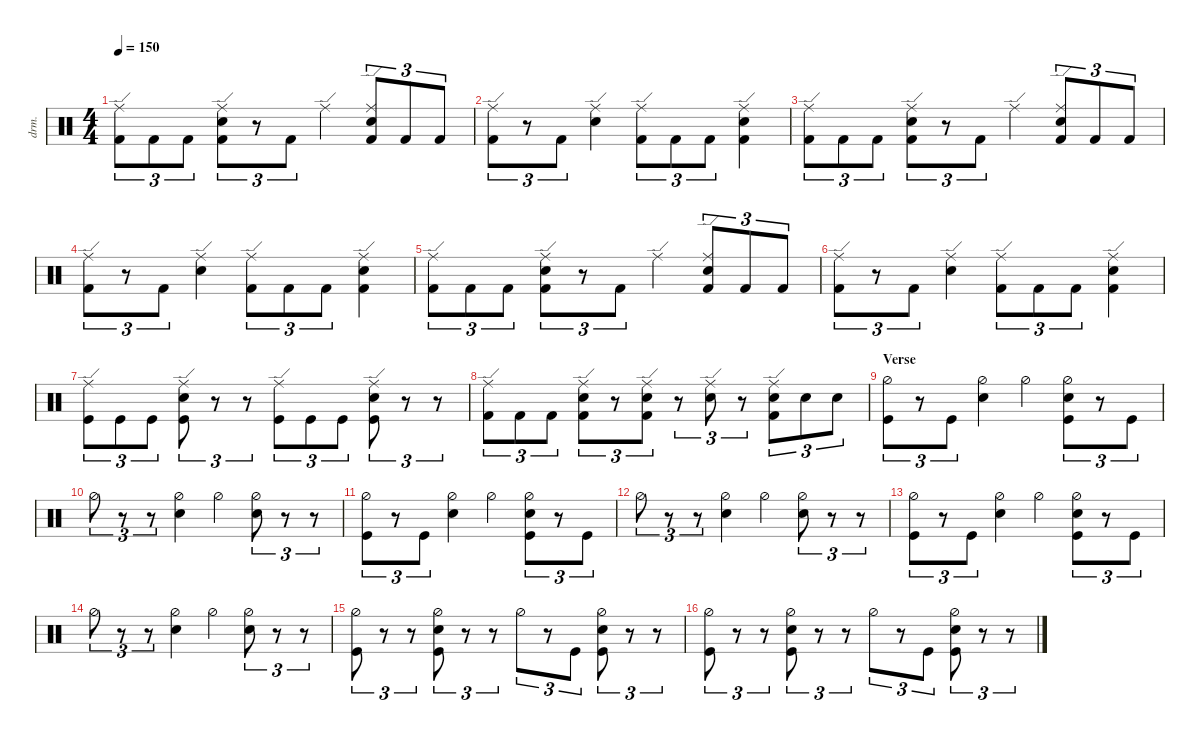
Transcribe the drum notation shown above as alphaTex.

\defaultSystemsLayout 4
\hideDynamics
\bracketExtendMode nobrackets
\otherSystemsTrackNameOrientation horizontal
\track ("Drumkit" "drm.") {solo instrument percussion}
\staff {score}
\articulation defaults
\ts (4 4)
\scale
1.06666
\tempo 150
\accidentals auto
\clef neutral
\ottava regular
\simile none
\ks aminor
("Kick (hit) 2" "Ride (edge)").8{tu (3 2) dy mf beam Down} "Kick (hit) 2".8{tu (3 2) beam Down} "Kick (hit) 2".8{tu (3 2) beam Down} ("Kick (hit) 2" "Ride (edge)" "Snare (hit) 2").8{tu (3 2) beam Down} r.8{tu (3 2) beam Down} "Kick (hit) 2".8{tu (3 2) beam Down} "Ride (edge)".4{beam Down} ("Kick (hit) 2" "Ride (edge)" "Snare (hit) 2").8{tu (3 2) beam Up} "Kick (hit) 2".8{tu (3 2) beam Up} "Kick (hit) 2".8{tu (3 2) beam Up} |
\scale
0.977779 ("Kick (hit) 2" "Ride (edge)").8{tu (3 2) beam Down} r.8{tu (3 2) beam Down} "Kick (hit) 2".8{tu (3 2) beam Down} ("Ride (edge)" "Snare (hit) 2").4{beam Down} ("Kick (hit) 2" "Ride (edge)").8{tu (3 2) beam Down} "Kick (hit) 2".8{tu (3 2) beam Down} "Kick (hit) 2".8{tu (3 2) beam Down} ("Ride (edge)" "Snare (hit) 2" "Kick (hit) 2").4{beam Down} |
\scale
0.977779 ("Kick (hit) 2" "Ride (edge)").8{tu (3 2) beam Down} "Kick (hit) 2".8{tu (3 2) beam Down} "Kick (hit) 2".8{tu (3 2) beam Down} ("Kick (hit) 2" "Ride (edge)" "Snare (hit) 2").8{tu (3 2) beam Down} r.8{tu (3 2) beam Down} "Kick (hit) 2".8{tu (3 2) beam Down} "Ride (edge)".4{beam Down} ("Kick (hit) 2" "Ride (edge)" "Snare (hit) 2").8{tu (3 2) beam Up} "Kick (hit) 2".8{tu (3 2) beam Up} "Kick (hit) 2".8{tu (3 2) beam Up} |
\scale
0.977779 ("Kick (hit) 2" "Ride (edge)").8{tu (3 2) beam Down} r.8{tu (3 2) beam Down} "Kick (hit) 2".8{tu (3 2) beam Down} ("Ride (edge)" "Snare (hit) 2").4{beam Down} ("Kick (hit) 2" "Ride (edge)").8{tu (3 2) beam Down} "Kick (hit) 2".8{tu (3 2) beam Down} "Kick (hit) 2".8{tu (3 2) beam Down} ("Ride (edge)" "Snare (hit) 2" "Kick (hit) 2").4{beam Down} |
\scale
1.06224 ("Kick (hit) 2" "Ride (edge)").8{tu (3 2) beam Down} "Kick (hit) 2".8{tu (3 2) beam Down} "Kick (hit) 2".8{tu (3 2) beam Down} ("Kick (hit) 2" "Ride (edge)" "Snare (hit) 2").8{tu (3 2) beam Down} r.8{tu (3 2) beam Down} "Kick (hit) 2".8{tu (3 2) beam Down} "Ride (edge)".4{beam Down} ("Kick (hit) 2" "Ride (edge)" "Snare (hit) 2").8{tu (3 2) beam Up} "Kick (hit) 2".8{tu (3 2) beam Up} "Kick (hit) 2".8{tu (3 2) beam Up} |
\scale
0.973358 ("Kick (hit) 2" "Ride (edge)").8{tu (3 2) beam Down} r.8{tu (3 2) beam Down} "Kick (hit) 2".8{tu (3 2) beam Down} ("Ride (edge)" "Snare (hit) 2").4{beam Down} ("Kick (hit) 2" "Ride (edge)").8{tu (3 2) beam Down} "Kick (hit) 2".8{tu (3 2) beam Down} "Kick (hit) 2".8{tu (3 2) beam Down} ("Ride (edge)" "Snare (hit) 2" "Kick (hit) 2").4{beam Down} |
\scale
0.973358 ("Kick (hit)" "Ride (edge)").8{tu (3 2) beam Down} "Kick (hit)".8{tu (3 2) beam Down} "Kick (hit)".8{tu (3 2) beam Down} ("Kick (hit)" "Snare (hit) 2" "Ride (edge)").8{tu (3 2) beam Down} r.8{tu (3 2) beam Down} r.8{tu (3 2) beam Down} ("Kick (hit)" "Ride (edge)").8{tu (3 2) beam Down} "Kick (hit)".8{tu (3 2) beam Down} "Kick (hit)".8{tu (3 2) beam Down} ("Kick (hit)" "Snare (hit) 2" "Ride (edge)").8{tu (3 2) beam Down} r.8{tu (3 2) beam Down} r.8{tu (3 2) beam Down} |
\scale
0.991042 ("Kick (hit) 2" "Ride (edge)").8{tu (3 2) beam Down} "Kick (hit) 2".8{tu (3 2) beam Down} "Kick (hit) 2".8{tu (3 2) beam Down} ("Kick (hit) 2" "Snare (hit) 2" "Ride (edge)").8{tu (3 2) beam Down} r.8{tu (3 2) beam Down} ("Kick (hit) 2" "Snare (hit) 2" "Ride (edge)").8{tu (3 2) beam Down} r.8{tu (3 2) beam Down} ("Snare (hit) 2" "Ride (edge)").8{tu (3 2) beam Down} r.8{tu (3 2) beam Down} ("Snare (hit) 2" "Kick (hit) 2" "Ride (edge)").8{tu (3 2) beam Down} "Snare (hit) 2".8{tu (3 2) beam Down} "Snare (hit) 2".8{tu (3 2) beam Down} |
\section ("" "Verse")
\scale
1.06666 ("Kick (hit)" "Hi-Hat (half)").8{tu (3 2) beam Down} r.8{tu (3 2) beam Down} "Kick (hit)".8{tu (3 2) beam Down} ("Hi-Hat (half)" "Snare (hit) 2").4{beam Down} "Hi-Hat (half)".4{beam Down} ("Kick (hit)" "Hi-Hat (half)" "Snare (hit) 2").8{tu (3 2) beam Down} r.8{tu (3 2) beam Down} "Kick (hit)".8{tu (3 2) beam Down} |
\scale
0.977779 "Hi-Hat (half)".8{tu (3 2) beam Down} r.8{tu (3 2) beam Down} r.8{tu (3 2) beam Down} ("Hi-Hat (half)" "Snare (hit) 2").4{beam Down} "Hi-Hat (half)".4{beam Down} ("Hi-Hat (half)" "Snare (hit) 2").8{tu (3 2) beam Down} r.8{tu (3 2) beam Down} r.8{tu (3 2) beam Down} |
\scale
0.977779 ("Kick (hit)" "Hi-Hat (half)").8{tu (3 2) beam Down} r.8{tu (3 2) beam Down} "Kick (hit)".8{tu (3 2) beam Down} ("Hi-Hat (half)" "Snare (hit) 2").4{beam Down} "Hi-Hat (half)".4{beam Down} ("Kick (hit)" "Hi-Hat (half)" "Snare (hit) 2").8{tu (3 2) beam Down} r.8{tu (3 2) beam Down} "Kick (hit)".8{tu (3 2) beam Down} |
\scale
0.977779 "Hi-Hat (half)".8{tu (3 2) beam Down} r.8{tu (3 2) beam Down} r.8{tu (3 2) beam Down} ("Hi-Hat (half)" "Snare (hit) 2").4{beam Down} "Hi-Hat (half)".4{beam Down} ("Hi-Hat (half)" "Snare (hit) 2").8{tu (3 2) beam Down} r.8{tu (3 2) beam Down} r.8{tu (3 2) beam Down} |
\scale
1.06224 ("Kick (hit)" "Hi-Hat (half)").8{tu (3 2) beam Down} r.8{tu (3 2) beam Down} "Kick (hit)".8{tu (3 2) beam Down} ("Hi-Hat (half)" "Snare (hit) 2").4{beam Down} "Hi-Hat (half)".4{beam Down} ("Kick (hit)" "Hi-Hat (half)" "Snare (hit) 2").8{tu (3 2) beam Down} r.8{tu (3 2) beam Down} "Kick (hit)".8{tu (3 2) beam Down} |
\scale
0.973358 "Hi-Hat (half)".8{tu (3 2) beam Down} r.8{tu (3 2) beam Down} r.8{tu (3 2) beam Down} ("Hi-Hat (half)" "Snare (hit) 2").4{beam Down} "Hi-Hat (half)".4{beam Down} ("Hi-Hat (half)" "Snare (hit) 2").8{tu (3 2) beam Down} r.8{tu (3 2) beam Down} r.8{tu (3 2) beam Down} |
\scale
0.973358 ("Kick (hit)" "Hi-Hat (half)").8{tu (3 2) beam Down} r.8{tu (3 2) beam Down} r.8{tu (3 2) beam Down} ("Kick (hit)" "Hi-Hat (half)" "Snare (hit) 2").8{tu (3 2) beam Down} r.8{tu (3 2) beam Down} r.8{tu (3 2) beam Down} "Hi-Hat (half)".8{tu (3 2) beam Down} r.8{tu (3 2) beam Down} "Kick (hit)".8{tu (3 2) beam Down} ("Kick (hit)" "Hi-Hat (half)" "Snare (hit) 2").8{tu (3 2) beam Down} r.8{tu (3 2) beam Down} r.8{tu (3 2) beam Down} |
\scale
0.991042 ("Kick (hit)" "Hi-Hat (half)").8{tu (3 2) beam Down} r.8{tu (3 2) beam Down} r.8{tu (3 2) beam Down} ("Kick (hit)" "Hi-Hat (half)" "Snare (hit) 2").8{tu (3 2) beam Down} r.8{tu (3 2) beam Down} r.8{tu (3 2) beam Down} "Hi-Hat (half)".8{tu (3 2) beam Down} r.8{tu (3 2) beam Down} "Kick (hit)".8{tu (3 2) beam Down} ("Kick (hit)" "Hi-Hat (half)" "Snare (hit) 2").8{tu (3 2) beam Down} r.8{tu (3 2) beam Down} r.8{tu (3 2) beam Down}
